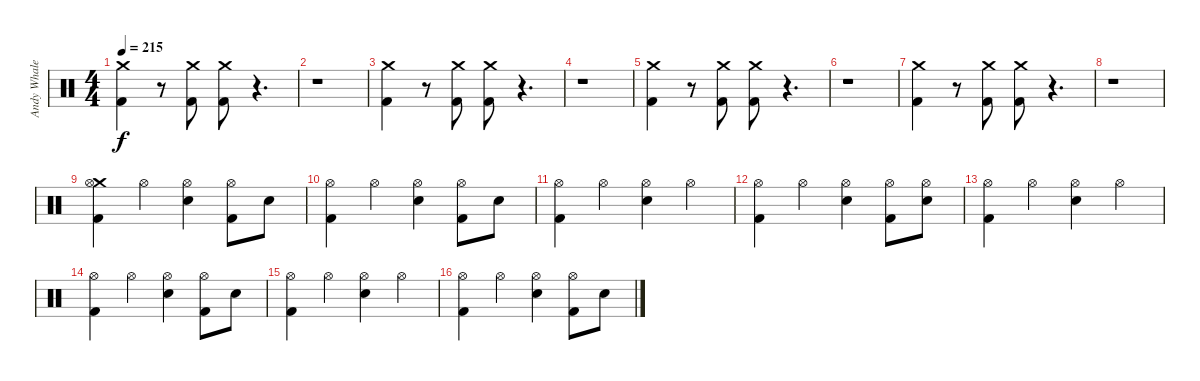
\track ("Andy Whale" "Andy Whale") {instrument percussion}
\staff {score}
\articulation defaults
\ts (4 4)
\tempo 215
\clef neutral
\ks c
("Crash medium (hit)" "Kick (hit) 2").4{dy f} r.8 ("Crash medium (hit)" "Kick (hit) 2").8 ("Crash medium (hit)" "Kick (hit) 2").8 r.4{d} |
r.1 |
("Crash medium (hit)" "Kick (hit) 2").4 r.8 ("Crash medium (hit)" "Kick (hit) 2").8 ("Crash medium (hit)" "Kick (hit) 2").8 r.4{d} |
r.1 |
("Crash medium (hit)" "Kick (hit) 2").4 r.8 ("Crash medium (hit)" "Kick (hit) 2").8 ("Crash medium (hit)" "Kick (hit) 2").8 r.4{d} |
r.1 |
("Crash medium (hit)" "Kick (hit) 2").4 r.8 ("Crash medium (hit)" "Kick (hit) 2").8 ("Crash medium (hit)" "Kick (hit) 2").8 r.4{d} |
r.1 |
("Crash medium (hit)" "Hi-Hat (open)" "Kick (hit) 2").4 "Hi-Hat (open)".4 ("Hi-Hat (open)" "Snare (hit) 2").4 ("Hi-Hat (open)" "Kick (hit) 2").8 "Snare (hit) 2".8 |
("Hi-Hat (open)" "Kick (hit) 2").4 "Hi-Hat (open)".4 ("Hi-Hat (open)" "Snare (hit) 2").4 ("Hi-Hat (open)" "Kick (hit) 2").8 "Snare (hit) 2".8 |
("Hi-Hat (open)" "Kick (hit) 2").4 "Hi-Hat (open)".4 ("Hi-Hat (open)" "Snare (hit) 2").4 "Hi-Hat (open)".4 |
("Hi-Hat (open)" "Kick (hit) 2").4 "Hi-Hat (open)".4 ("Hi-Hat (open)" "Snare (hit) 2").4 ("Hi-Hat (open)" "Kick (hit) 2").8 ("Hi-Hat (open)" "Snare (hit) 2").8 |
("Hi-Hat (open)" "Kick (hit) 2").4 "Hi-Hat (open)".4 ("Hi-Hat (open)" "Snare (hit) 2").4 "Hi-Hat (open)".4 |
("Hi-Hat (open)" "Kick (hit) 2").4 "Hi-Hat (open)".4 ("Hi-Hat (open)" "Snare (hit) 2").4 ("Hi-Hat (open)" "Kick (hit) 2").8 "Snare (hit) 2".8 |
("Hi-Hat (open)" "Kick (hit) 2").4 "Hi-Hat (open)".4 ("Hi-Hat (open)" "Snare (hit) 2").4 "Hi-Hat (open)".4 |
("Hi-Hat (open)" "Kick (hit) 2").4 "Hi-Hat (open)".4 ("Hi-Hat (open)" "Snare (hit) 2").4 ("Hi-Hat (open)" "Kick (hit) 2").8 "Snare (hit) 2".8
